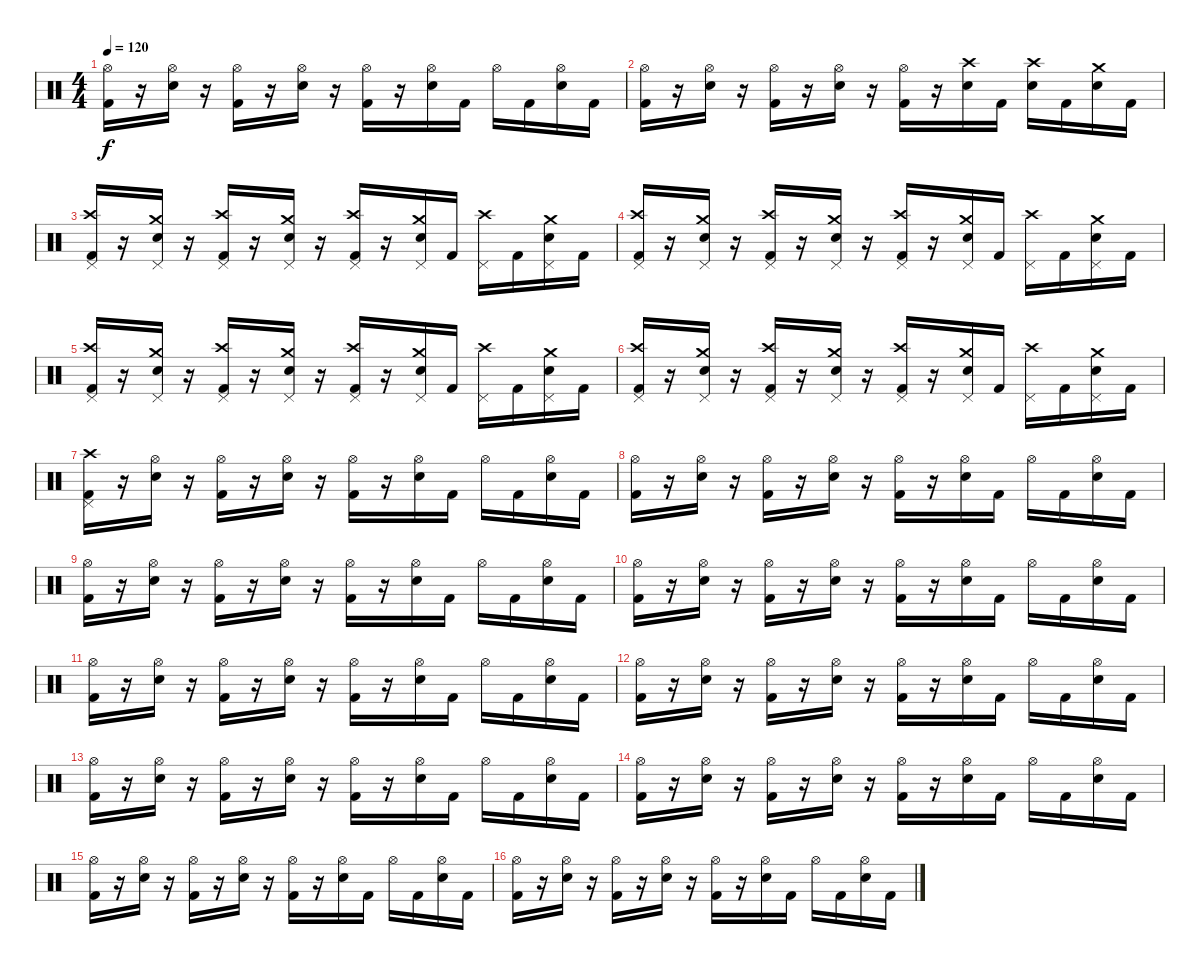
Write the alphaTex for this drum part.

\track "" {instrument percussion}
\staff {score}
\articulation defaults
\ts (4 4)
\tempo 120
\clef neutral
\ks c
("Hi-Hat (open)" "Kick (hit) 2").16{dy f} r.16 ("Hi-Hat (open)" "Electric Snare (hit)").16 r.16 ("Hi-Hat (open)" "Kick (hit) 2").16 r.16 ("Hi-Hat (open)" "Electric Snare (hit)").16 r.16 ("Hi-Hat (open)" "Kick (hit) 2").16 r.16 ("Hi-Hat (open)" "Electric Snare (hit)").16 "Kick (hit) 2".16 "Hi-Hat (open)".16 "Kick (hit) 2".16 ("Hi-Hat (open)" "Electric Snare (hit)").16 "Kick (hit) 2".16 |
("Hi-Hat (open)" "Kick (hit) 2").16 r.16 ("Hi-Hat (open)" "Electric Snare (hit)").16 r.16 ("Hi-Hat (open)" "Kick (hit) 2").16 r.16 ("Hi-Hat (open)" "Electric Snare (hit)").16 r.16 ("Hi-Hat (open)" "Kick (hit) 2").16 r.16 ("Crash high (hit)" "Electric Snare (hit)").16 "Kick (hit) 2".16 ("Crash high (hit)" "Electric Snare (hit)").16 "Kick (hit) 2".16 ("Crash medium (hit)" "Electric Snare (hit)").16 "Kick (hit) 2".16 |
("Crash high (hit)" "Pedal Hi-Hat (hit)" "Kick (hit) 2").16 r.16 ("Crash medium (hit)" "Pedal Hi-Hat (hit)" "Electric Snare (hit)").16 r.16 ("Crash high (hit)" "Pedal Hi-Hat (hit)" "Kick (hit) 2").16 r.16 ("Crash medium (hit)" "Pedal Hi-Hat (hit)" "Electric Snare (hit)").16 r.16 ("Crash high (hit)" "Pedal Hi-Hat (hit)" "Kick (hit) 2").16 r.16 ("Crash medium (hit)" "Pedal Hi-Hat (hit)" "Electric Snare (hit)").16 "Kick (hit) 2".16 ("Crash high (hit)" "Pedal Hi-Hat (hit)").16 "Kick (hit) 2".16 ("Crash medium (hit)" "Pedal Hi-Hat (hit)" "Electric Snare (hit)").16 "Kick (hit) 2".16 |
("Crash high (hit)" "Pedal Hi-Hat (hit)" "Kick (hit) 2").16 r.16 ("Crash medium (hit)" "Pedal Hi-Hat (hit)" "Electric Snare (hit)").16 r.16 ("Crash high (hit)" "Pedal Hi-Hat (hit)" "Kick (hit) 2").16 r.16 ("Crash medium (hit)" "Pedal Hi-Hat (hit)" "Electric Snare (hit)").16 r.16 ("Crash high (hit)" "Pedal Hi-Hat (hit)" "Kick (hit) 2").16 r.16 ("Crash medium (hit)" "Pedal Hi-Hat (hit)" "Electric Snare (hit)").16 "Kick (hit) 2".16 ("Crash high (hit)" "Pedal Hi-Hat (hit)").16 "Kick (hit) 2".16 ("Crash medium (hit)" "Pedal Hi-Hat (hit)" "Electric Snare (hit)").16 "Kick (hit) 2".16 |
("Crash high (hit)" "Pedal Hi-Hat (hit)" "Kick (hit) 2").16 r.16 ("Crash medium (hit)" "Pedal Hi-Hat (hit)" "Electric Snare (hit)").16 r.16 ("Crash high (hit)" "Pedal Hi-Hat (hit)" "Kick (hit) 2").16 r.16 ("Crash medium (hit)" "Pedal Hi-Hat (hit)" "Electric Snare (hit)").16 r.16 ("Crash high (hit)" "Pedal Hi-Hat (hit)" "Kick (hit) 2").16 r.16 ("Crash medium (hit)" "Pedal Hi-Hat (hit)" "Electric Snare (hit)").16 "Kick (hit) 2".16 ("Crash high (hit)" "Pedal Hi-Hat (hit)").16 "Kick (hit) 2".16 ("Crash medium (hit)" "Pedal Hi-Hat (hit)" "Electric Snare (hit)").16 "Kick (hit) 2".16 |
("Crash high (hit)" "Pedal Hi-Hat (hit)" "Kick (hit) 2").16 r.16 ("Crash medium (hit)" "Pedal Hi-Hat (hit)" "Electric Snare (hit)").16 r.16 ("Crash high (hit)" "Pedal Hi-Hat (hit)" "Kick (hit) 2").16 r.16 ("Crash medium (hit)" "Pedal Hi-Hat (hit)" "Electric Snare (hit)").16 r.16 ("Crash high (hit)" "Pedal Hi-Hat (hit)" "Kick (hit) 2").16 r.16 ("Crash medium (hit)" "Pedal Hi-Hat (hit)" "Electric Snare (hit)").16 "Kick (hit) 2".16 ("Crash high (hit)" "Pedal Hi-Hat (hit)").16 "Kick (hit) 2".16 ("Crash medium (hit)" "Pedal Hi-Hat (hit)" "Electric Snare (hit)").16 "Kick (hit) 2".16 |
("Crash high (hit)" "Pedal Hi-Hat (hit)" "Kick (hit) 2").16 r.16 ("Hi-Hat (open)" "Electric Snare (hit)").16 r.16 ("Hi-Hat (open)" "Kick (hit) 2").16 r.16 ("Hi-Hat (open)" "Electric Snare (hit)").16 r.16 ("Hi-Hat (open)" "Kick (hit) 2").16 r.16 ("Hi-Hat (open)" "Electric Snare (hit)").16 "Kick (hit) 2".16 "Hi-Hat (open)".16 "Kick (hit) 2".16 ("Hi-Hat (open)" "Electric Snare (hit)").16 "Kick (hit) 2".16 |
("Hi-Hat (open)" "Kick (hit) 2").16 r.16 ("Hi-Hat (open)" "Electric Snare (hit)").16 r.16 ("Hi-Hat (open)" "Kick (hit) 2").16 r.16 ("Hi-Hat (open)" "Electric Snare (hit)").16 r.16 ("Hi-Hat (open)" "Kick (hit) 2").16 r.16 ("Hi-Hat (open)" "Electric Snare (hit)").16 "Kick (hit) 2".16 "Hi-Hat (open)".16 "Kick (hit) 2".16 ("Hi-Hat (open)" "Electric Snare (hit)").16 "Kick (hit) 2".16 |
("Hi-Hat (open)" "Kick (hit) 2").16 r.16 ("Hi-Hat (open)" "Electric Snare (hit)").16 r.16 ("Hi-Hat (open)" "Kick (hit) 2").16 r.16 ("Hi-Hat (open)" "Electric Snare (hit)").16 r.16 ("Hi-Hat (open)" "Kick (hit) 2").16 r.16 ("Hi-Hat (open)" "Electric Snare (hit)").16 "Kick (hit) 2".16 "Hi-Hat (open)".16 "Kick (hit) 2".16 ("Hi-Hat (open)" "Electric Snare (hit)").16 "Kick (hit) 2".16 |
("Hi-Hat (open)" "Kick (hit) 2").16 r.16 ("Hi-Hat (open)" "Electric Snare (hit)").16 r.16 ("Hi-Hat (open)" "Kick (hit) 2").16 r.16 ("Hi-Hat (open)" "Electric Snare (hit)").16 r.16 ("Hi-Hat (open)" "Kick (hit) 2").16 r.16 ("Hi-Hat (open)" "Electric Snare (hit)").16 "Kick (hit) 2".16 "Hi-Hat (open)".16 "Kick (hit) 2".16 ("Hi-Hat (open)" "Electric Snare (hit)").16 "Kick (hit) 2".16 |
("Hi-Hat (open)" "Kick (hit) 2").16 r.16 ("Hi-Hat (open)" "Electric Snare (hit)").16 r.16 ("Hi-Hat (open)" "Kick (hit) 2").16 r.16 ("Hi-Hat (open)" "Electric Snare (hit)").16 r.16 ("Hi-Hat (open)" "Kick (hit) 2").16 r.16 ("Hi-Hat (open)" "Electric Snare (hit)").16 "Kick (hit) 2".16 "Hi-Hat (open)".16 "Kick (hit) 2".16 ("Hi-Hat (open)" "Electric Snare (hit)").16 "Kick (hit) 2".16 |
("Hi-Hat (open)" "Kick (hit) 2").16 r.16 ("Hi-Hat (open)" "Electric Snare (hit)").16 r.16 ("Hi-Hat (open)" "Kick (hit) 2").16 r.16 ("Hi-Hat (open)" "Electric Snare (hit)").16 r.16 ("Hi-Hat (open)" "Kick (hit) 2").16 r.16 ("Hi-Hat (open)" "Electric Snare (hit)").16 "Kick (hit) 2".16 "Hi-Hat (open)".16 "Kick (hit) 2".16 ("Hi-Hat (open)" "Electric Snare (hit)").16 "Kick (hit) 2".16 |
("Hi-Hat (open)" "Kick (hit) 2").16 r.16 ("Hi-Hat (open)" "Electric Snare (hit)").16 r.16 ("Hi-Hat (open)" "Kick (hit) 2").16 r.16 ("Hi-Hat (open)" "Electric Snare (hit)").16 r.16 ("Hi-Hat (open)" "Kick (hit) 2").16 r.16 ("Hi-Hat (open)" "Electric Snare (hit)").16 "Kick (hit) 2".16 "Hi-Hat (open)".16 "Kick (hit) 2".16 ("Hi-Hat (open)" "Electric Snare (hit)").16 "Kick (hit) 2".16 |
("Hi-Hat (open)" "Kick (hit) 2").16 r.16 ("Hi-Hat (open)" "Electric Snare (hit)").16 r.16 ("Hi-Hat (open)" "Kick (hit) 2").16 r.16 ("Hi-Hat (open)" "Electric Snare (hit)").16 r.16 ("Hi-Hat (open)" "Kick (hit) 2").16 r.16 ("Hi-Hat (open)" "Electric Snare (hit)").16 "Kick (hit) 2".16 "Hi-Hat (open)".16 "Kick (hit) 2".16 ("Hi-Hat (open)" "Electric Snare (hit)").16 "Kick (hit) 2".16 |
("Hi-Hat (open)" "Kick (hit) 2").16 r.16 ("Hi-Hat (open)" "Electric Snare (hit)").16 r.16 ("Hi-Hat (open)" "Kick (hit) 2").16 r.16 ("Hi-Hat (open)" "Electric Snare (hit)").16 r.16 ("Hi-Hat (open)" "Kick (hit) 2").16 r.16 ("Hi-Hat (open)" "Electric Snare (hit)").16 "Kick (hit) 2".16 "Hi-Hat (open)".16 "Kick (hit) 2".16 ("Hi-Hat (open)" "Electric Snare (hit)").16 "Kick (hit) 2".16 |
("Hi-Hat (open)" "Kick (hit) 2").16 r.16 ("Hi-Hat (open)" "Electric Snare (hit)").16 r.16 ("Hi-Hat (open)" "Kick (hit) 2").16 r.16 ("Hi-Hat (open)" "Electric Snare (hit)").16 r.16 ("Hi-Hat (open)" "Kick (hit) 2").16 r.16 ("Hi-Hat (open)" "Electric Snare (hit)").16 "Kick (hit) 2".16 "Hi-Hat (open)".16 "Kick (hit) 2".16 ("Hi-Hat (open)" "Electric Snare (hit)").16 "Kick (hit) 2".16
